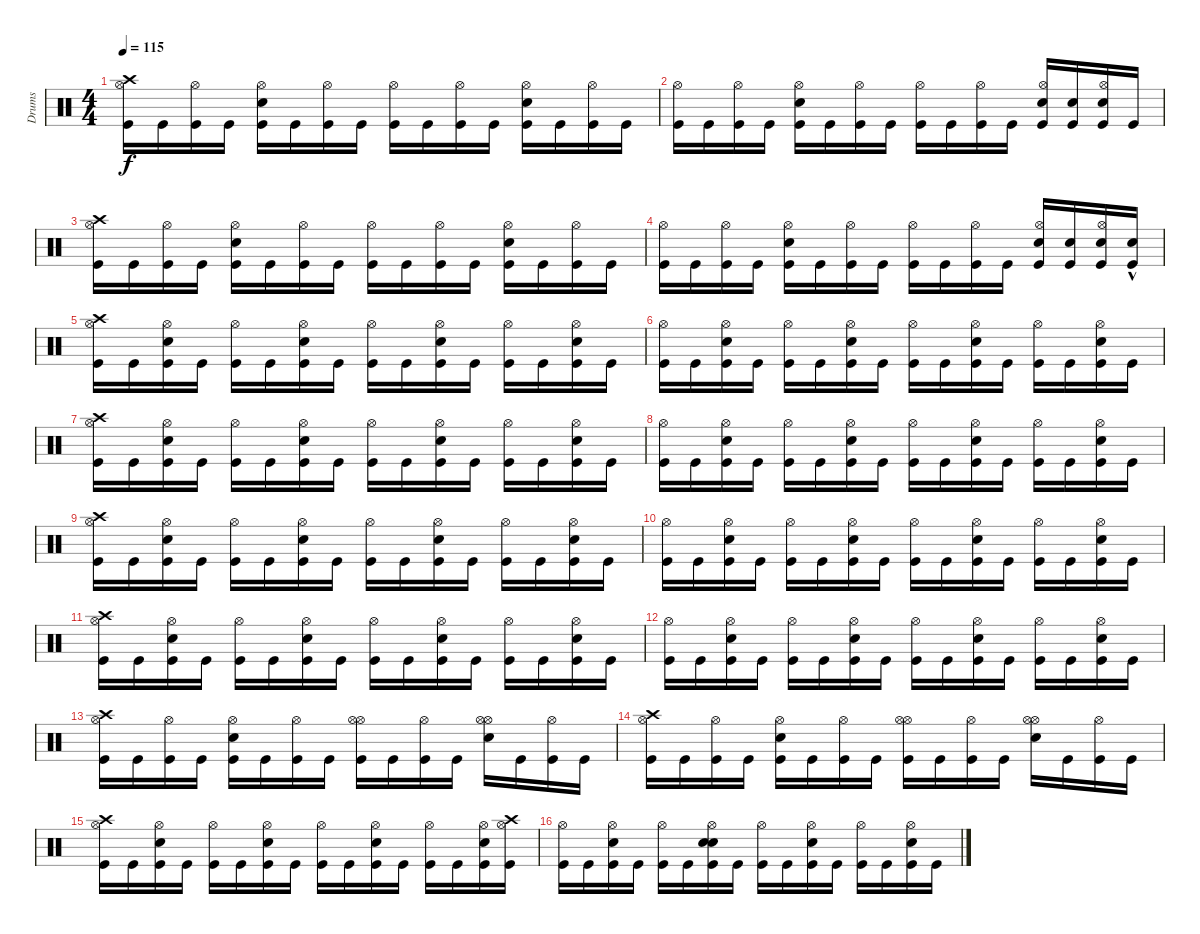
\track ("Drums" "Drums") {instrument percussion}
\staff {score}
\articulation defaults
\ts (4 4)
\tempo 115
\clef neutral
\ks c
("Crash high (hit)" "Kick (hit)" "Hi-Hat (open)").16{dy f} "Kick (hit)".16 ("Kick (hit)" "Hi-Hat (open)").16 "Kick (hit)".16 ("Electric Snare (hit)" "Kick (hit)" "Hi-Hat (open)").16 "Kick (hit)".16 ("Kick (hit)" "Hi-Hat (open)").16 "Kick (hit)".16 ("Hi-Hat (open)" "Kick (hit)").16 "Kick (hit)".16 ("Kick (hit)" "Hi-Hat (open)").16 "Kick (hit)".16 ("Electric Snare (hit)" "Hi-Hat (open)" "Kick (hit)").16 "Kick (hit)".16 ("Kick (hit)" "Hi-Hat (open)").16 "Kick (hit)".16 |
("Kick (hit)" "Hi-Hat (open)").16 "Kick (hit)".16 ("Kick (hit)" "Hi-Hat (open)").16 "Kick (hit)".16 ("Electric Snare (hit)" "Kick (hit)" "Hi-Hat (open)").16 "Kick (hit)".16 ("Kick (hit)" "Hi-Hat (open)").16 "Kick (hit)".16 ("Hi-Hat (open)" "Kick (hit)").16 "Kick (hit)".16 ("Kick (hit)" "Hi-Hat (open)").16 "Kick (hit)".16 ("Electric Snare (hit)" "Hi-Hat (open)" "Kick (hit)").16 ("Electric Snare (hit)" "Kick (hit)").16 ("Electric Snare (hit)" "Kick (hit)" "Hi-Hat (open)").16 "Kick (hit)".16 |
("Crash high (hit)" "Kick (hit)" "Hi-Hat (open)").16 "Kick (hit)".16 ("Kick (hit)" "Hi-Hat (open)").16 "Kick (hit)".16 ("Electric Snare (hit)" "Kick (hit)" "Hi-Hat (open)").16 "Kick (hit)".16 ("Kick (hit)" "Hi-Hat (open)").16 "Kick (hit)".16 ("Hi-Hat (open)" "Kick (hit)").16 "Kick (hit)".16 ("Kick (hit)" "Hi-Hat (open)").16 "Kick (hit)".16 ("Electric Snare (hit)" "Hi-Hat (open)" "Kick (hit)").16 "Kick (hit)".16 ("Kick (hit)" "Hi-Hat (open)").16 "Kick (hit)".16 |
("Kick (hit)" "Hi-Hat (open)").16 "Kick (hit)".16 ("Kick (hit)" "Hi-Hat (open)").16 "Kick (hit)".16 ("Electric Snare (hit)" "Kick (hit)" "Hi-Hat (open)").16 "Kick (hit)".16 ("Kick (hit)" "Hi-Hat (open)").16 "Kick (hit)".16 ("Hi-Hat (open)" "Kick (hit)").16 "Kick (hit)".16 ("Kick (hit)" "Hi-Hat (open)").16 "Kick (hit)".16 ("Electric Snare (hit)" "Hi-Hat (open)" "Kick (hit)").16 ("Electric Snare (hit)" "Kick (hit)").16 ("Electric Snare (hit)" "Kick (hit)" "Hi-Hat (open)").16 ("Electric Snare (hit)"{hac} "Kick (hit)").16 |
("Crash high (hit)" "Kick (hit)" "Hi-Hat (open)").16 "Kick (hit)".16 ("Kick (hit)" "Electric Snare (hit)" "Hi-Hat (open)").16 "Kick (hit)".16 ("Kick (hit)" "Hi-Hat (open)").16 "Kick (hit)".16 ("Kick (hit)" "Electric Snare (hit)" "Hi-Hat (open)").16 "Kick (hit)".16 ("Hi-Hat (open)" "Kick (hit)").16 "Kick (hit)".16 ("Kick (hit)" "Hi-Hat (open)" "Electric Snare (hit)").16 "Kick (hit)".16 ("Hi-Hat (open)" "Kick (hit)").16 "Kick (hit)".16 ("Kick (hit)" "Hi-Hat (open)" "Electric Snare (hit)").16 "Kick (hit)".16 |
("Kick (hit)" "Hi-Hat (open)").16 "Kick (hit)".16 ("Kick (hit)" "Electric Snare (hit)" "Hi-Hat (open)").16 "Kick (hit)".16 ("Kick (hit)" "Hi-Hat (open)").16 "Kick (hit)".16 ("Kick (hit)" "Electric Snare (hit)" "Hi-Hat (open)").16 "Kick (hit)".16 ("Hi-Hat (open)" "Kick (hit)").16 "Kick (hit)".16 ("Kick (hit)" "Hi-Hat (open)" "Electric Snare (hit)").16 "Kick (hit)".16 ("Hi-Hat (open)" "Kick (hit)").16 "Kick (hit)".16 ("Kick (hit)" "Hi-Hat (open)" "Electric Snare (hit)").16 "Kick (hit)".16 |
("Crash high (hit)" "Kick (hit)" "Hi-Hat (open)").16 "Kick (hit)".16 ("Kick (hit)" "Electric Snare (hit)" "Hi-Hat (open)").16 "Kick (hit)".16 ("Kick (hit)" "Hi-Hat (open)").16 "Kick (hit)".16 ("Kick (hit)" "Electric Snare (hit)" "Hi-Hat (open)").16 "Kick (hit)".16 ("Hi-Hat (open)" "Kick (hit)").16 "Kick (hit)".16 ("Kick (hit)" "Hi-Hat (open)" "Electric Snare (hit)").16 "Kick (hit)".16 ("Hi-Hat (open)" "Kick (hit)").16 "Kick (hit)".16 ("Kick (hit)" "Hi-Hat (open)" "Electric Snare (hit)").16 "Kick (hit)".16 |
("Kick (hit)" "Hi-Hat (open)").16 "Kick (hit)".16 ("Kick (hit)" "Electric Snare (hit)" "Hi-Hat (open)").16 "Kick (hit)".16 ("Kick (hit)" "Hi-Hat (open)").16 "Kick (hit)".16 ("Kick (hit)" "Electric Snare (hit)" "Hi-Hat (open)").16 "Kick (hit)".16 ("Hi-Hat (open)" "Kick (hit)").16 "Kick (hit)".16 ("Kick (hit)" "Hi-Hat (open)" "Electric Snare (hit)").16 "Kick (hit)".16 ("Hi-Hat (open)" "Kick (hit)").16 "Kick (hit)".16 ("Kick (hit)" "Hi-Hat (open)" "Electric Snare (hit)").16 "Kick (hit)".16 |
("Crash high (hit)" "Kick (hit)" "Hi-Hat (open)").16 "Kick (hit)".16 ("Kick (hit)" "Electric Snare (hit)" "Hi-Hat (open)").16 "Kick (hit)".16 ("Kick (hit)" "Hi-Hat (open)").16 "Kick (hit)".16 ("Kick (hit)" "Electric Snare (hit)" "Hi-Hat (open)").16 "Kick (hit)".16 ("Hi-Hat (open)" "Kick (hit)").16 "Kick (hit)".16 ("Kick (hit)" "Hi-Hat (open)" "Electric Snare (hit)").16 "Kick (hit)".16 ("Hi-Hat (open)" "Kick (hit)").16 "Kick (hit)".16 ("Kick (hit)" "Hi-Hat (open)" "Electric Snare (hit)").16 "Kick (hit)".16 |
("Kick (hit)" "Hi-Hat (open)").16 "Kick (hit)".16 ("Kick (hit)" "Electric Snare (hit)" "Hi-Hat (open)").16 "Kick (hit)".16 ("Kick (hit)" "Hi-Hat (open)").16 "Kick (hit)".16 ("Kick (hit)" "Electric Snare (hit)" "Hi-Hat (open)").16 "Kick (hit)".16 ("Hi-Hat (open)" "Kick (hit)").16 "Kick (hit)".16 ("Kick (hit)" "Hi-Hat (open)" "Electric Snare (hit)").16 "Kick (hit)".16 ("Hi-Hat (open)" "Kick (hit)").16 "Kick (hit)".16 ("Kick (hit)" "Hi-Hat (open)" "Electric Snare (hit)").16 "Kick (hit)".16 |
("Crash high (hit)" "Kick (hit)" "Hi-Hat (open)").16 "Kick (hit)".16 ("Kick (hit)" "Electric Snare (hit)" "Hi-Hat (open)").16 "Kick (hit)".16 ("Kick (hit)" "Hi-Hat (open)").16 "Kick (hit)".16 ("Kick (hit)" "Electric Snare (hit)" "Hi-Hat (open)").16 "Kick (hit)".16 ("Hi-Hat (open)" "Kick (hit)").16 "Kick (hit)".16 ("Kick (hit)" "Hi-Hat (open)" "Electric Snare (hit)").16 "Kick (hit)".16 ("Hi-Hat (open)" "Kick (hit)").16 "Kick (hit)".16 ("Kick (hit)" "Hi-Hat (open)" "Electric Snare (hit)").16 "Kick (hit)".16 |
("Kick (hit)" "Hi-Hat (open)").16 "Kick (hit)".16 ("Kick (hit)" "Electric Snare (hit)" "Hi-Hat (open)").16 "Kick (hit)".16 ("Kick (hit)" "Hi-Hat (open)").16 "Kick (hit)".16 ("Kick (hit)" "Electric Snare (hit)" "Hi-Hat (open)").16 "Kick (hit)".16 ("Hi-Hat (open)" "Kick (hit)").16 "Kick (hit)".16 ("Kick (hit)" "Hi-Hat (open)" "Electric Snare (hit)").16 "Kick (hit)".16 ("Hi-Hat (open)" "Kick (hit)").16 "Kick (hit)".16 ("Kick (hit)" "Hi-Hat (open)" "Electric Snare (hit)").16 "Kick (hit)".16 |
("Crash high (hit)" "Kick (hit)" "Hi-Hat (open)").16 "Kick (hit)".16 ("Kick (hit)" "Hi-Hat (open)").16 "Kick (hit)".16 ("Kick (hit)" "Electric Snare (hit)" "Hi-Hat (open)").16 "Kick (hit)".16 ("Kick (hit)" "Hi-Hat (open)").16 "Kick (hit)".16 ("Hi-Hat (open)" "Kick (hit)" "Hi-Hat (open)").16 "Kick (hit)".16 ("Kick (hit)" "Hi-Hat (open)").16 "Kick (hit)".16 ("Hi-Hat (open)" "Electric Snare (hit)" "Hi-Hat (open)").16 "Kick (hit)".16 ("Kick (hit)" "Hi-Hat (open)").16 "Kick (hit)".16 |
("Crash high (hit)" "Kick (hit)" "Hi-Hat (open)").16 "Kick (hit)".16 ("Kick (hit)" "Hi-Hat (open)").16 "Kick (hit)".16 ("Kick (hit)" "Electric Snare (hit)" "Hi-Hat (open)").16 "Kick (hit)".16 ("Kick (hit)" "Hi-Hat (open)").16 "Kick (hit)".16 ("Hi-Hat (open)" "Kick (hit)" "Hi-Hat (open)").16 "Kick (hit)".16 ("Kick (hit)" "Hi-Hat (open)").16 "Kick (hit)".16 ("Hi-Hat (open)" "Electric Snare (hit)" "Hi-Hat (open)").16 "Kick (hit)".16 ("Kick (hit)" "Hi-Hat (open)").16 "Kick (hit)".16 |
("Crash high (hit)" "Kick (hit)" "Hi-Hat (open)").16 "Kick (hit)".16 ("Kick (hit)" "Electric Snare (hit)" "Hi-Hat (open)").16 "Kick (hit)".16 ("Kick (hit)" "Hi-Hat (open)").16 "Kick (hit)".16 ("Kick (hit)" "Electric Snare (hit)" "Hi-Hat (open)").16 "Kick (hit)".16 ("Hi-Hat (open)" "Kick (hit)").16 "Kick (hit)".16 ("Kick (hit)" "Hi-Hat (open)" "Electric Snare (hit)").16 "Kick (hit)".16 ("Hi-Hat (open)" "Kick (hit)").16 "Kick (hit)".16 ("Kick (hit)" "Hi-Hat (open)" "Electric Snare (hit)").16 ("Kick (hit)" "Hi-Hat (open)" "Crash high (hit)").16 |
("Kick (hit)" "Hi-Hat (open)").16 "Kick (hit)".16 ("Kick (hit)" "Electric Snare (hit)" "Hi-Hat (open)").16 "Kick (hit)".16 ("Kick (hit)" "Hi-Hat (open)").16 "Kick (hit)".16 ("Kick (hit)" "Electric Snare (hit)" "Hi-Hat (open)" "Snare (hit)").16 "Kick (hit)".16 ("Hi-Hat (open)" "Kick (hit)").16 "Kick (hit)".16 ("Kick (hit)" "Hi-Hat (open)" "Electric Snare (hit)").16 "Kick (hit)".16 ("Hi-Hat (open)" "Kick (hit)").16 "Kick (hit)".16 ("Kick (hit)" "Hi-Hat (open)" "Electric Snare (hit)").16 "Kick (hit)".16
